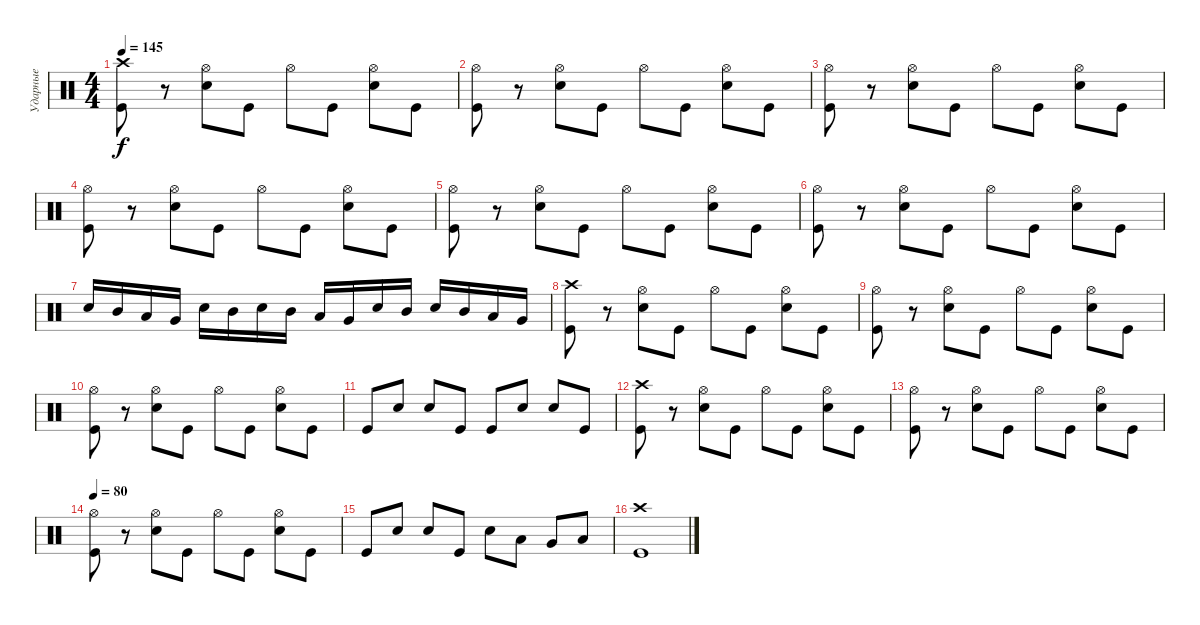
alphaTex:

\track ("Ударные" "Ударные") {instrument percussion}
\staff {score}
\articulation defaults
\ts (4 4)
\tempo 145
\clef neutral
\ks c
("Crash high (hit)" "Kick (hit)").8{dy f} r.8 ("Hi-Hat (open)" "Electric Snare (hit)").8 "Kick (hit)".8 "Hi-Hat (open)".8 "Kick (hit)".8 ("Hi-Hat (open)" "Electric Snare (hit)").8 "Kick (hit)".8 |
("Hi-Hat (open)" "Kick (hit)").8 r.8 ("Hi-Hat (open)" "Electric Snare (hit)").8 "Kick (hit)".8 "Hi-Hat (open)".8 "Kick (hit)".8 ("Hi-Hat (open)" "Electric Snare (hit)").8 "Kick (hit)".8 |
("Hi-Hat (open)" "Kick (hit)").8 r.8 ("Hi-Hat (open)" "Electric Snare (hit)").8 "Kick (hit)".8 "Hi-Hat (open)".8 "Kick (hit)".8 ("Hi-Hat (open)" "Electric Snare (hit)").8 "Kick (hit)".8 |
("Hi-Hat (open)" "Kick (hit)").8 r.8 ("Hi-Hat (open)" "Electric Snare (hit)").8 "Kick (hit)".8 "Hi-Hat (open)".8 "Kick (hit)".8 ("Hi-Hat (open)" "Electric Snare (hit)").8 "Kick (hit)".8 |
("Hi-Hat (open)" "Kick (hit)").8 r.8 ("Hi-Hat (open)" "Electric Snare (hit)").8 "Kick (hit)".8 "Hi-Hat (open)".8 "Kick (hit)".8 ("Hi-Hat (open)" "Electric Snare (hit)").8 "Kick (hit)".8 |
("Hi-Hat (open)" "Kick (hit)").8 r.8 ("Hi-Hat (open)" "Electric Snare (hit)").8 "Kick (hit)".8 "Hi-Hat (open)".8 "Kick (hit)".8 ("Hi-Hat (open)" "Electric Snare (hit)").8 "Kick (hit)".8 |
"Electric Snare (hit)".16 "Mid Tom (hit)".16 "Low Tom (hit)".16 "Very Low Tom (hit)".16 "Electric Snare (hit)".16 "Mid Tom (hit)".16 "Electric Snare (hit)".16 "Mid Tom (hit)".16 "Low Tom (hit)".16 "Very Low Tom (hit)".16 "Electric Snare (hit)".16 "Mid Tom (hit)".16 "Electric Snare (hit)".16 "Mid Tom (hit)".16 "Low Tom (hit)".16 "Very Low Tom (hit)".16 |
("Crash high (hit)" "Kick (hit)").8 r.8 ("Hi-Hat (open)" "Electric Snare (hit)").8 "Kick (hit)".8 "Hi-Hat (open)".8 "Kick (hit)".8 ("Hi-Hat (open)" "Electric Snare (hit)").8 "Kick (hit)".8 |
("Hi-Hat (open)" "Kick (hit)").8 r.8 ("Hi-Hat (open)" "Electric Snare (hit)").8 "Kick (hit)".8 "Hi-Hat (open)".8 "Kick (hit)".8 ("Hi-Hat (open)" "Electric Snare (hit)").8 "Kick (hit)".8 |
("Hi-Hat (open)" "Kick (hit)").8 r.8 ("Hi-Hat (open)" "Electric Snare (hit)").8 "Kick (hit)".8 "Hi-Hat (open)".8 "Kick (hit)".8 ("Hi-Hat (open)" "Electric Snare (hit)").8 "Kick (hit)".8 |
"Kick (hit)".8 "Electric Snare (hit)".8 "Electric Snare (hit)".8 "Kick (hit)".8 "Kick (hit)".8 "Electric Snare (hit)".8 "Electric Snare (hit)".8 "Kick (hit)".8 |
("Crash high (hit)" "Kick (hit)").8 r.8 ("Hi-Hat (open)" "Electric Snare (hit)").8 "Kick (hit)".8 "Hi-Hat (open)".8 "Kick (hit)".8 ("Hi-Hat (open)" "Electric Snare (hit)").8 "Kick (hit)".8 |
("Hi-Hat (open)" "Kick (hit)").8 r.8 ("Hi-Hat (open)" "Electric Snare (hit)").8 "Kick (hit)".8 "Hi-Hat (open)".8 "Kick (hit)".8 ("Hi-Hat (open)" "Electric Snare (hit)").8 "Kick (hit)".8 |
\tempo 80
("Hi-Hat (open)" "Kick (hit)").8 r.8 ("Hi-Hat (open)" "Electric Snare (hit)").8 "Kick (hit)".8 "Hi-Hat (open)".8 "Kick (hit)".8 ("Hi-Hat (open)" "Electric Snare (hit)").8 "Kick (hit)".8 |
"Kick (hit)".8 "Electric Snare (hit)".8 "Electric Snare (hit)".8 "Kick (hit)".8 "Electric Snare (hit)".8 "Low Tom (hit)".8 "Very Low Tom (hit)".8 "Low Floor Tom (hit)".8 |
("Crash high (hit)" "Kick (hit)").1
